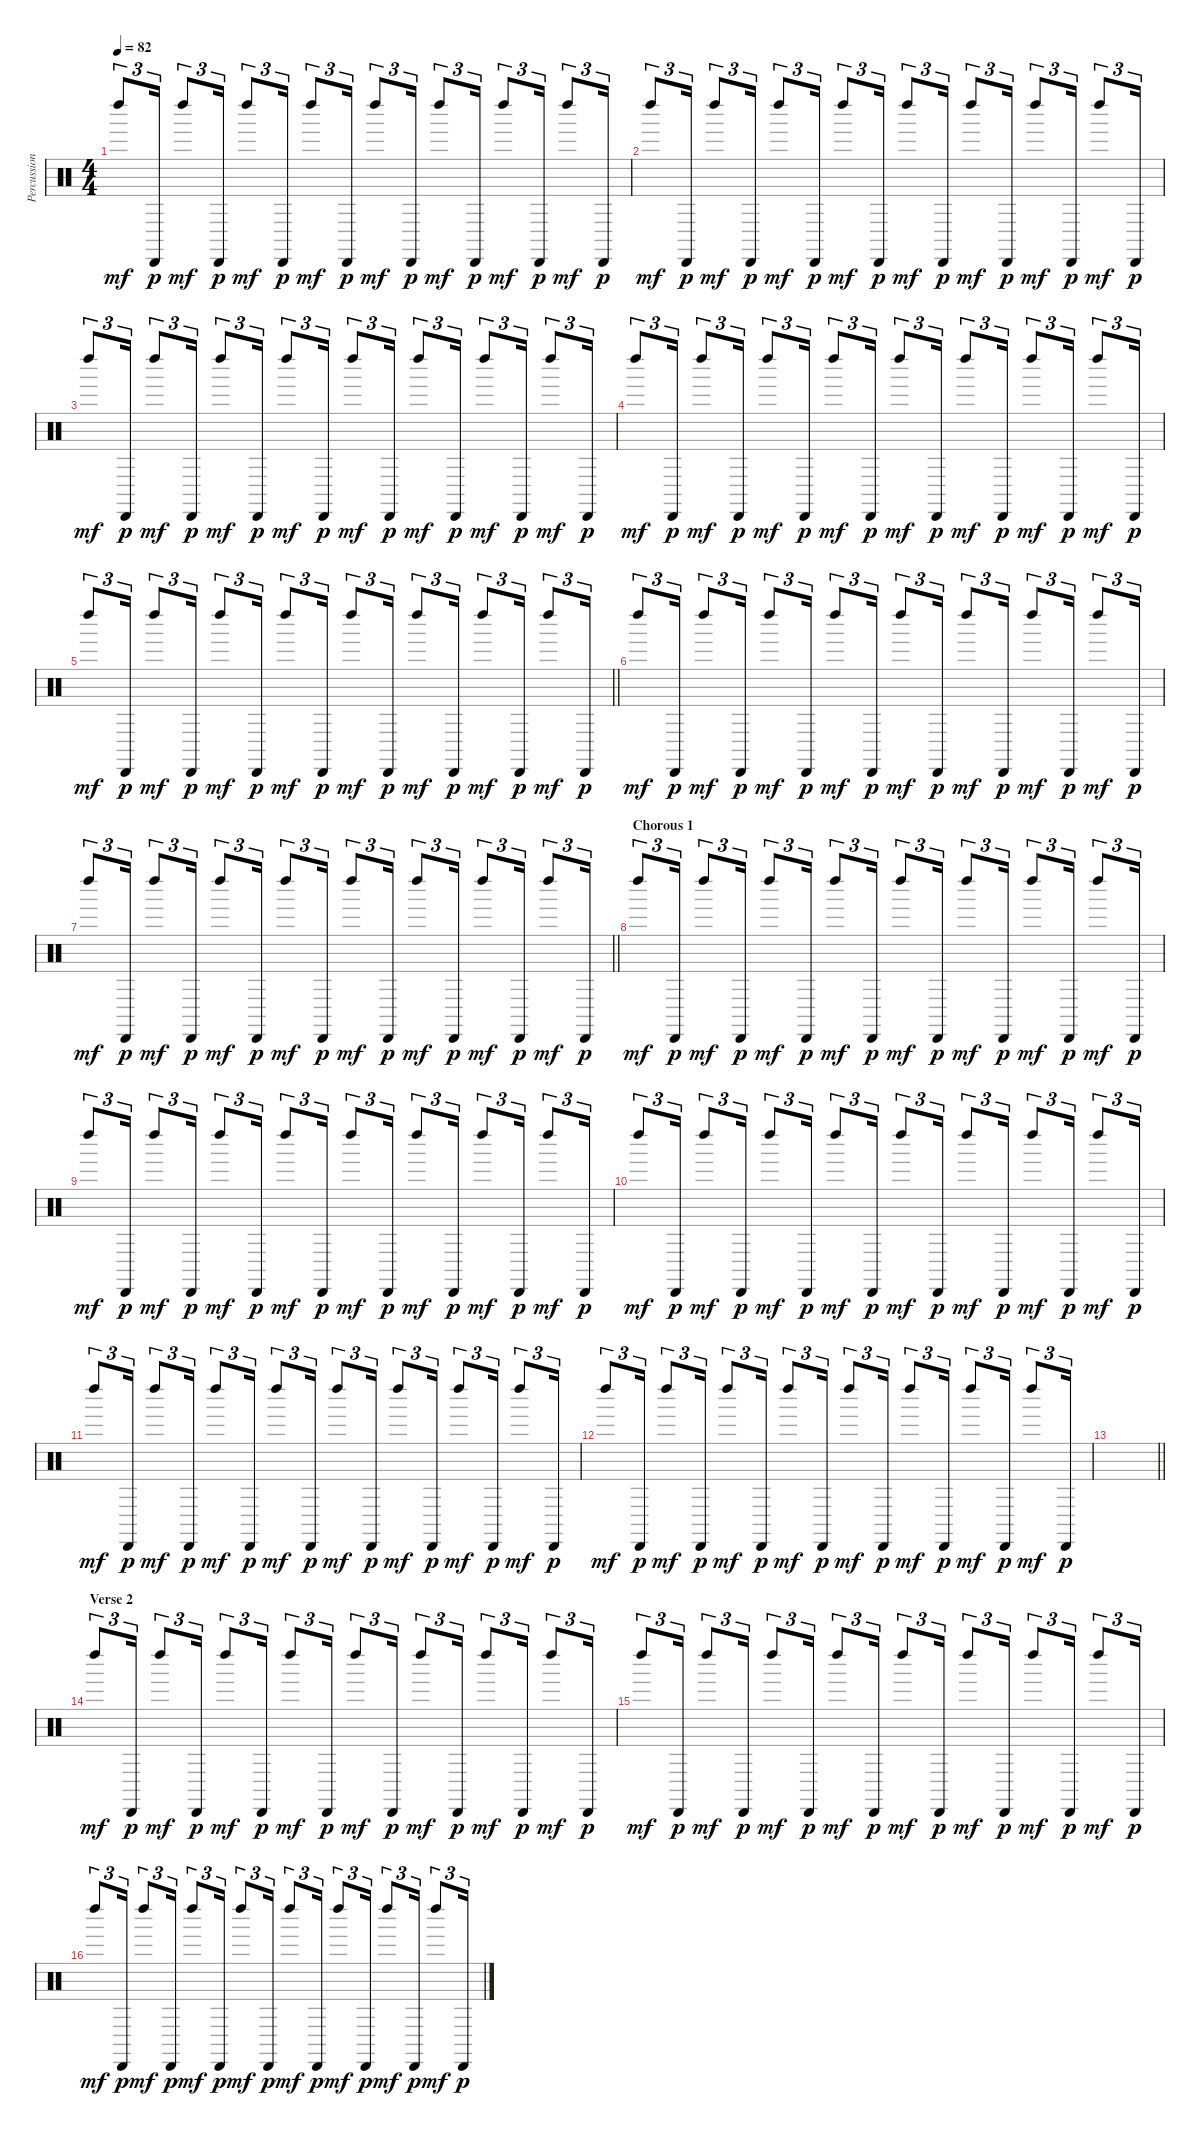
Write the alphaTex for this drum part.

\track ("Percussion" "Percussion") {instrument percussion}
\staff {score}
\articulation defaults
\ts (4 4)
\tempo 82
\clef neutral
\ks c "Left Maraca (hit)".8{tu (3 2) dy mf} "Cabasa (hit)".16{tu (3 2) dy p} "Left Maraca (hit)".8{tu (3 2) dy mf} "Cabasa (hit)".16{tu (3 2) dy p} "Left Maraca (hit)".8{tu (3 2) dy mf} "Cabasa (hit)".16{tu (3 2) dy p} "Left Maraca (hit)".8{tu (3 2) dy mf} "Cabasa (hit)".16{tu (3 2) dy p} "Left Maraca (hit)".8{tu (3 2) dy mf} "Cabasa (hit)".16{tu (3 2) dy p} "Left Maraca (hit)".8{tu (3 2) dy mf} "Cabasa (hit)".16{tu (3 2) dy p} "Left Maraca (hit)".8{tu (3 2) dy mf} "Cabasa (hit)".16{tu (3 2) dy p} "Left Maraca (hit)".8{tu (3 2) dy mf} "Cabasa (hit)".16{tu (3 2) dy p}
|
"Left Maraca (hit)".8{tu (3 2) dy mf} "Cabasa (hit)".16{tu (3 2) dy p} "Left Maraca (hit)".8{tu (3 2) dy mf} "Cabasa (hit)".16{tu (3 2) dy p} "Left Maraca (hit)".8{tu (3 2) dy mf} "Cabasa (hit)".16{tu (3 2) dy p} "Left Maraca (hit)".8{tu (3 2) dy mf} "Cabasa (hit)".16{tu (3 2) dy p} "Left Maraca (hit)".8{tu (3 2) dy mf} "Cabasa (hit)".16{tu (3 2) dy p} "Left Maraca (hit)".8{tu (3 2) dy mf} "Cabasa (hit)".16{tu (3 2) dy p} "Left Maraca (hit)".8{tu (3 2) dy mf} "Cabasa (hit)".16{tu (3 2) dy p} "Left Maraca (hit)".8{tu (3 2) dy mf} "Cabasa (hit)".16{tu (3 2) dy p} |
"Left Maraca (hit)".8{tu (3 2) dy mf} "Cabasa (hit)".16{tu (3 2) dy p} "Left Maraca (hit)".8{tu (3 2) dy mf} "Cabasa (hit)".16{tu (3 2) dy p} "Left Maraca (hit)".8{tu (3 2) dy mf} "Cabasa (hit)".16{tu (3 2) dy p} "Left Maraca (hit)".8{tu (3 2) dy mf} "Cabasa (hit)".16{tu (3 2) dy p} "Left Maraca (hit)".8{tu (3 2) dy mf} "Cabasa (hit)".16{tu (3 2) dy p} "Left Maraca (hit)".8{tu (3 2) dy mf} "Cabasa (hit)".16{tu (3 2) dy p} "Left Maraca (hit)".8{tu (3 2) dy mf} "Cabasa (hit)".16{tu (3 2) dy p} "Left Maraca (hit)".8{tu (3 2) dy mf} "Cabasa (hit)".16{tu (3 2) dy p} |
"Left Maraca (hit)".8{tu (3 2) dy mf} "Cabasa (hit)".16{tu (3 2) dy p} "Left Maraca (hit)".8{tu (3 2) dy mf} "Cabasa (hit)".16{tu (3 2) dy p} "Left Maraca (hit)".8{tu (3 2) dy mf} "Cabasa (hit)".16{tu (3 2) dy p} "Left Maraca (hit)".8{tu (3 2) dy mf} "Cabasa (hit)".16{tu (3 2) dy p} "Left Maraca (hit)".8{tu (3 2) dy mf} "Cabasa (hit)".16{tu (3 2) dy p} "Left Maraca (hit)".8{tu (3 2) dy mf} "Cabasa (hit)".16{tu (3 2) dy p} "Left Maraca (hit)".8{tu (3 2) dy mf} "Cabasa (hit)".16{tu (3 2) dy p} "Left Maraca (hit)".8{tu (3 2) dy mf} "Cabasa (hit)".16{tu (3 2) dy p} |
\barLineRight lightlight "Left Maraca (hit)".8{tu (3 2) dy mf} "Cabasa (hit)".16{tu (3 2) dy p} "Left Maraca (hit)".8{tu (3 2) dy mf} "Cabasa (hit)".16{tu (3 2) dy p} "Left Maraca (hit)".8{tu (3 2) dy mf} "Cabasa (hit)".16{tu (3 2) dy p} "Left Maraca (hit)".8{tu (3 2) dy mf} "Cabasa (hit)".16{tu (3 2) dy p} "Left Maraca (hit)".8{tu (3 2) dy mf} "Cabasa (hit)".16{tu (3 2) dy p} "Left Maraca (hit)".8{tu (3 2) dy mf} "Cabasa (hit)".16{tu (3 2) dy p} "Left Maraca (hit)".8{tu (3 2) dy mf} "Cabasa (hit)".16{tu (3 2) dy p} "Left Maraca (hit)".8{tu (3 2) dy mf} "Cabasa (hit)".16{tu (3 2) dy p}
|
\section ("" "")
"Left Maraca (hit)".8{tu (3 2) dy mf} "Cabasa (hit)".16{tu (3 2) dy p} "Left Maraca (hit)".8{tu (3 2) dy mf} "Cabasa (hit)".16{tu (3 2) dy p} "Left Maraca (hit)".8{tu (3 2) dy mf} "Cabasa (hit)".16{tu (3 2) dy p} "Left Maraca (hit)".8{tu (3 2) dy mf} "Cabasa (hit)".16{tu (3 2) dy p} "Left Maraca (hit)".8{tu (3 2) dy mf} "Cabasa (hit)".16{tu (3 2) dy p} "Left Maraca (hit)".8{tu (3 2) dy mf} "Cabasa (hit)".16{tu (3 2) dy p} "Left Maraca (hit)".8{tu (3 2) dy mf} "Cabasa (hit)".16{tu (3 2) dy p} "Left Maraca (hit)".8{tu (3 2) dy mf} "Cabasa (hit)".16{tu (3 2) dy p} |
\barLineRight lightlight "Left Maraca (hit)".8{tu (3 2) dy mf} "Cabasa (hit)".16{tu (3 2) dy p} "Left Maraca (hit)".8{tu (3 2) dy mf} "Cabasa (hit)".16{tu (3 2) dy p} "Left Maraca (hit)".8{tu (3 2) dy mf} "Cabasa (hit)".16{tu (3 2) dy p} "Left Maraca (hit)".8{tu (3 2) dy mf} "Cabasa (hit)".16{tu (3 2) dy p} "Left Maraca (hit)".8{tu (3 2) dy mf} "Cabasa (hit)".16{tu (3 2) dy p} "Left Maraca (hit)".8{tu (3 2) dy mf} "Cabasa (hit)".16{tu (3 2) dy p} "Left Maraca (hit)".8{tu (3 2) dy mf} "Cabasa (hit)".16{tu (3 2) dy p} "Left Maraca (hit)".8{tu (3 2) dy mf} "Cabasa (hit)".16{tu (3 2) dy p}
|
\section ("" "Chorous 1")
"Left Maraca (hit)".8{tu (3 2) dy mf} "Cabasa (hit)".16{tu (3 2) dy p} "Left Maraca (hit)".8{tu (3 2) dy mf} "Cabasa (hit)".16{tu (3 2) dy p} "Left Maraca (hit)".8{tu (3 2) dy mf} "Cabasa (hit)".16{tu (3 2) dy p} "Left Maraca (hit)".8{tu (3 2) dy mf} "Cabasa (hit)".16{tu (3 2) dy p} "Left Maraca (hit)".8{tu (3 2) dy mf} "Cabasa (hit)".16{tu (3 2) dy p} "Left Maraca (hit)".8{tu (3 2) dy mf} "Cabasa (hit)".16{tu (3 2) dy p} "Left Maraca (hit)".8{tu (3 2) dy mf} "Cabasa (hit)".16{tu (3 2) dy p} "Left Maraca (hit)".8{tu (3 2) dy mf} "Cabasa (hit)".16{tu (3 2) dy p} |
"Left Maraca (hit)".8{tu (3 2) dy mf} "Cabasa (hit)".16{tu (3 2) dy p} "Left Maraca (hit)".8{tu (3 2) dy mf} "Cabasa (hit)".16{tu (3 2) dy p} "Left Maraca (hit)".8{tu (3 2) dy mf} "Cabasa (hit)".16{tu (3 2) dy p} "Left Maraca (hit)".8{tu (3 2) dy mf} "Cabasa (hit)".16{tu (3 2) dy p} "Left Maraca (hit)".8{tu (3 2) dy mf} "Cabasa (hit)".16{tu (3 2) dy p} "Left Maraca (hit)".8{tu (3 2) dy mf} "Cabasa (hit)".16{tu (3 2) dy p} "Left Maraca (hit)".8{tu (3 2) dy mf} "Cabasa (hit)".16{tu (3 2) dy p} "Left Maraca (hit)".8{tu (3 2) dy mf} "Cabasa (hit)".16{tu (3 2) dy p} |
"Left Maraca (hit)".8{tu (3 2) dy mf} "Cabasa (hit)".16{tu (3 2) dy p} "Left Maraca (hit)".8{tu (3 2) dy mf} "Cabasa (hit)".16{tu (3 2) dy p} "Left Maraca (hit)".8{tu (3 2) dy mf} "Cabasa (hit)".16{tu (3 2) dy p} "Left Maraca (hit)".8{tu (3 2) dy mf} "Cabasa (hit)".16{tu (3 2) dy p} "Left Maraca (hit)".8{tu (3 2) dy mf} "Cabasa (hit)".16{tu (3 2) dy p} "Left Maraca (hit)".8{tu (3 2) dy mf} "Cabasa (hit)".16{tu (3 2) dy p} "Left Maraca (hit)".8{tu (3 2) dy mf} "Cabasa (hit)".16{tu (3 2) dy p} "Left Maraca (hit)".8{tu (3 2) dy mf} "Cabasa (hit)".16{tu (3 2) dy p} |
"Left Maraca (hit)".8{tu (3 2) dy mf} "Cabasa (hit)".16{tu (3 2) dy p} "Left Maraca (hit)".8{tu (3 2) dy mf} "Cabasa (hit)".16{tu (3 2) dy p} "Left Maraca (hit)".8{tu (3 2) dy mf} "Cabasa (hit)".16{tu (3 2) dy p} "Left Maraca (hit)".8{tu (3 2) dy mf} "Cabasa (hit)".16{tu (3 2) dy p} "Left Maraca (hit)".8{tu (3 2) dy mf} "Cabasa (hit)".16{tu (3 2) dy p} "Left Maraca (hit)".8{tu (3 2) dy mf} "Cabasa (hit)".16{tu (3 2) dy p} "Left Maraca (hit)".8{tu (3 2) dy mf} "Cabasa (hit)".16{tu (3 2) dy p} "Left Maraca (hit)".8{tu (3 2) dy mf} "Cabasa (hit)".16{tu (3 2) dy p} |
"Left Maraca (hit)".8{tu (3 2) dy mf} "Cabasa (hit)".16{tu (3 2) dy p} "Left Maraca (hit)".8{tu (3 2) dy mf} "Cabasa (hit)".16{tu (3 2) dy p} "Left Maraca (hit)".8{tu (3 2) dy mf} "Cabasa (hit)".16{tu (3 2) dy p} "Left Maraca (hit)".8{tu (3 2) dy mf} "Cabasa (hit)".16{tu (3 2) dy p} "Left Maraca (hit)".8{tu (3 2) dy mf} "Cabasa (hit)".16{tu (3 2) dy p} "Left Maraca (hit)".8{tu (3 2) dy mf} "Cabasa (hit)".16{tu (3 2) dy p} "Left Maraca (hit)".8{tu (3 2) dy mf} "Cabasa (hit)".16{tu (3 2) dy p} "Left Maraca (hit)".8{tu (3 2) dy mf} "Cabasa (hit)".16{tu (3 2) dy p} |
\barLineRight lightlight
|
\section ("" "Verse 2")
"Left Maraca (hit)".8{tu (3 2) dy mf} "Cabasa (hit)".16{tu (3 2) dy p} "Left Maraca (hit)".8{tu (3 2) dy mf} "Cabasa (hit)".16{tu (3 2) dy p} "Left Maraca (hit)".8{tu (3 2) dy mf} "Cabasa (hit)".16{tu (3 2) dy p} "Left Maraca (hit)".8{tu (3 2) dy mf} "Cabasa (hit)".16{tu (3 2) dy p} "Left Maraca (hit)".8{tu (3 2) dy mf} "Cabasa (hit)".16{tu (3 2) dy p} "Left Maraca (hit)".8{tu (3 2) dy mf} "Cabasa (hit)".16{tu (3 2) dy p} "Left Maraca (hit)".8{tu (3 2) dy mf} "Cabasa (hit)".16{tu (3 2) dy p} "Left Maraca (hit)".8{tu (3 2) dy mf} "Cabasa (hit)".16{tu (3 2) dy p} |
"Left Maraca (hit)".8{tu (3 2) dy mf} "Cabasa (hit)".16{tu (3 2) dy p} "Left Maraca (hit)".8{tu (3 2) dy mf} "Cabasa (hit)".16{tu (3 2) dy p} "Left Maraca (hit)".8{tu (3 2) dy mf} "Cabasa (hit)".16{tu (3 2) dy p} "Left Maraca (hit)".8{tu (3 2) dy mf} "Cabasa (hit)".16{tu (3 2) dy p} "Left Maraca (hit)".8{tu (3 2) dy mf} "Cabasa (hit)".16{tu (3 2) dy p} "Left Maraca (hit)".8{tu (3 2) dy mf} "Cabasa (hit)".16{tu (3 2) dy p} "Left Maraca (hit)".8{tu (3 2) dy mf} "Cabasa (hit)".16{tu (3 2) dy p} "Left Maraca (hit)".8{tu (3 2) dy mf} "Cabasa (hit)".16{tu (3 2) dy p} |
"Left Maraca (hit)".8{tu (3 2) dy mf} "Cabasa (hit)".16{tu (3 2) dy p} "Left Maraca (hit)".8{tu (3 2) dy mf} "Cabasa (hit)".16{tu (3 2) dy p} "Left Maraca (hit)".8{tu (3 2) dy mf} "Cabasa (hit)".16{tu (3 2) dy p} "Left Maraca (hit)".8{tu (3 2) dy mf} "Cabasa (hit)".16{tu (3 2) dy p} "Left Maraca (hit)".8{tu (3 2) dy mf} "Cabasa (hit)".16{tu (3 2) dy p} "Left Maraca (hit)".8{tu (3 2) dy mf} "Cabasa (hit)".16{tu (3 2) dy p} "Left Maraca (hit)".8{tu (3 2) dy mf} "Cabasa (hit)".16{tu (3 2) dy p} "Left Maraca (hit)".8{tu (3 2) dy mf} "Cabasa (hit)".16{tu (3 2) dy p}
